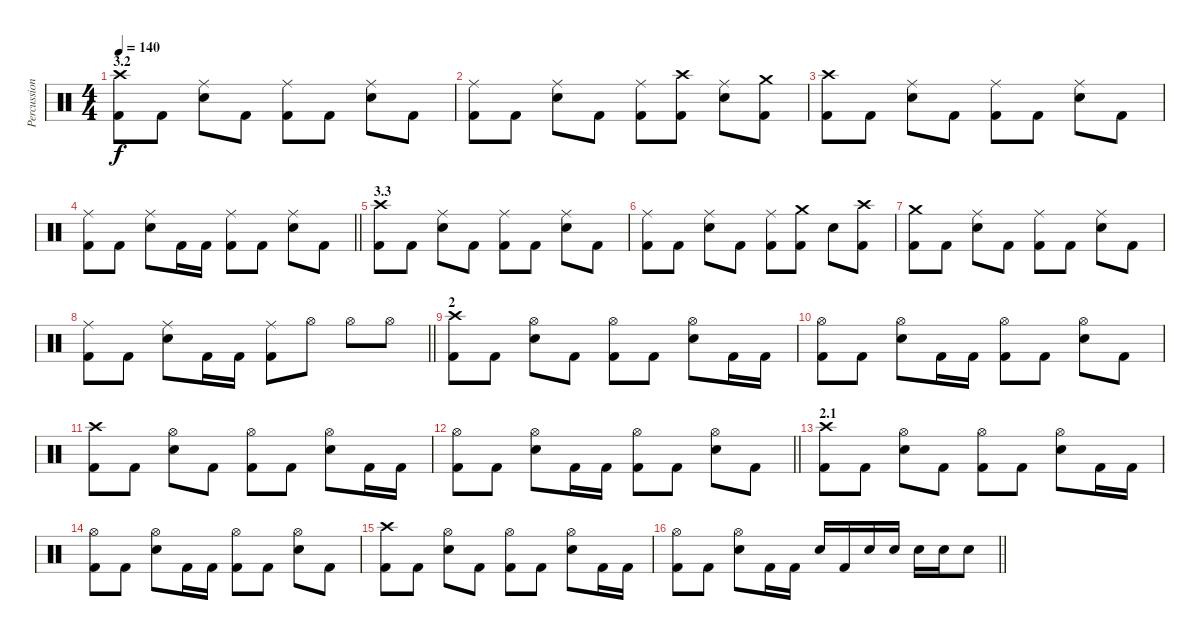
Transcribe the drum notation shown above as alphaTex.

\track ("Percussion" "Percussion") {instrument percussion}
\staff {score}
\articulation defaults
\ts (4 4)
\section ("" "3.2")
\tempo 140
\clef neutral
\ks c
("Kick (hit) 2" "Crash high (hit)").8{dy f} "Kick (hit) 2".8 ("Snare (hit) 2" "Ride (middle)").8 "Kick (hit) 2".8 ("Kick (hit) 2" "Ride (middle)").8 "Kick (hit) 2".8 ("Snare (hit) 2" "Ride (middle)").8 "Kick (hit) 2".8 |
("Kick (hit) 2" "Ride (middle)").8 "Kick (hit) 2".8 ("Snare (hit) 2" "Ride (middle)").8 "Kick (hit) 2".8 ("Kick (hit) 2" "Ride (middle)").8 ("Kick (hit) 2" "Crash high (hit)").8 ("Snare (hit) 2" "Ride (middle)").8 ("Kick (hit) 2" "Crash medium (hit)").8 |
("Kick (hit) 2" "Crash high (hit)").8 "Kick (hit) 2".8 ("Snare (hit) 2" "Ride (middle)").8 "Kick (hit) 2".8 ("Kick (hit) 2" "Ride (middle)").8 "Kick (hit) 2".8 ("Snare (hit) 2" "Ride (middle)").8 "Kick (hit) 2".8 |
\barLineRight lightlight
("Kick (hit) 2" "Ride (middle)").8 "Kick (hit) 2".8 ("Snare (hit) 2" "Ride (middle)").8 "Kick (hit) 2".16 "Kick (hit) 2".16 ("Kick (hit) 2" "Ride (middle)").8 "Kick (hit) 2".8 ("Snare (hit) 2" "Ride (middle)").8 "Kick (hit) 2".8 |
\section ("" "3.3")
("Kick (hit) 2" "Crash high (hit)").8 "Kick (hit) 2".8 ("Snare (hit) 2" "Ride (middle)").8 "Kick (hit) 2".8 ("Kick (hit) 2" "Ride (middle)").8 "Kick (hit) 2".8 ("Snare (hit) 2" "Ride (middle)").8 "Kick (hit) 2".8 |
("Kick (hit) 2" "Ride (middle)").8 "Kick (hit) 2".8 ("Snare (hit) 2" "Ride (middle)").8 "Kick (hit) 2".8 ("Kick (hit) 2" "Ride (middle)").8 ("Kick (hit) 2" "Crash medium (hit)").8 "Snare (hit) 2".8 ("Kick (hit) 2" "Crash high (hit)").8 |
("Kick (hit) 2" "Crash medium (hit)").8 "Kick (hit) 2".8 ("Snare (hit) 2" "Ride (middle)").8 "Kick (hit) 2".8 ("Kick (hit) 2" "Ride (middle)").8 "Kick (hit) 2".8 ("Snare (hit) 2" "Ride (middle)").8 "Kick (hit) 2".8 |
\barLineRight lightlight
("Kick (hit) 2" "Ride (middle)").8 "Kick (hit) 2".8 ("Snare (hit) 2" "Ride (middle)").8 "Kick (hit) 2".16 "Kick (hit) 2".16 ("Kick (hit) 2" "Ride (middle)").8 "Hi-Hat (open)".8 "Hi-Hat (open)".8 "Hi-Hat (open)".8 |
\section ("" "2")
("Kick (hit) 2" "Crash high (hit)").8 "Kick (hit) 2".8 ("Snare (hit) 2" "Hi-Hat (open)").8 "Kick (hit) 2".8 ("Kick (hit) 2" "Hi-Hat (open)").8 "Kick (hit) 2".8 ("Snare (hit) 2" "Hi-Hat (open)").8 "Kick (hit) 2".16 "Kick (hit) 2".16 |
("Kick (hit) 2" "Hi-Hat (open)").8 "Kick (hit) 2".8 ("Snare (hit) 2" "Hi-Hat (open)").8 "Kick (hit) 2".16 "Kick (hit) 2".16 ("Kick (hit) 2" "Hi-Hat (open)").8 "Kick (hit) 2".8 ("Snare (hit) 2" "Hi-Hat (open)").8 "Kick (hit) 2".8 |
("Kick (hit) 2" "Crash high (hit)").8 "Kick (hit) 2".8 ("Snare (hit) 2" "Hi-Hat (open)").8 "Kick (hit) 2".8 ("Kick (hit) 2" "Hi-Hat (open)").8 "Kick (hit) 2".8 ("Snare (hit) 2" "Hi-Hat (open)").8 "Kick (hit) 2".16 "Kick (hit) 2".16 |
\barLineRight lightlight
("Kick (hit) 2" "Hi-Hat (open)").8 "Kick (hit) 2".8 ("Snare (hit) 2" "Hi-Hat (open)").8 "Kick (hit) 2".16 "Kick (hit) 2".16 ("Kick (hit) 2" "Hi-Hat (open)").8 "Kick (hit) 2".8 ("Snare (hit) 2" "Hi-Hat (open)").8 "Kick (hit) 2".8 |
\section ("" "2.1")
("Kick (hit) 2" "Crash high (hit)").8 "Kick (hit) 2".8 ("Snare (hit) 2" "Hi-Hat (open)").8 "Kick (hit) 2".8 ("Kick (hit) 2" "Hi-Hat (open)").8 "Kick (hit) 2".8 ("Snare (hit) 2" "Hi-Hat (open)").8 "Kick (hit) 2".16 "Kick (hit) 2".16 |
("Kick (hit) 2" "Hi-Hat (open)").8 "Kick (hit) 2".8 ("Snare (hit) 2" "Hi-Hat (open)").8 "Kick (hit) 2".16 "Kick (hit) 2".16 ("Kick (hit) 2" "Hi-Hat (open)").8 "Kick (hit) 2".8 ("Snare (hit) 2" "Hi-Hat (open)").8 "Kick (hit) 2".8 |
("Kick (hit) 2" "Crash high (hit)").8 "Kick (hit) 2".8 ("Snare (hit) 2" "Hi-Hat (open)").8 "Kick (hit) 2".8 ("Kick (hit) 2" "Hi-Hat (open)").8 "Kick (hit) 2".8 ("Snare (hit) 2" "Hi-Hat (open)").8 "Kick (hit) 2".16 "Kick (hit) 2".16 |
\barLineRight lightlight
("Kick (hit) 2" "Hi-Hat (open)").8 "Kick (hit) 2".8 ("Snare (hit) 2" "Hi-Hat (open)").8 "Kick (hit) 2".16 "Kick (hit) 2".16 "Snare (hit) 2".16 "Kick (hit) 2".16 "Snare (hit) 2".16 "Snare (hit) 2".16 "Snare (hit) 2".16 "Snare (hit) 2".16 "Snare (hit) 2".8
